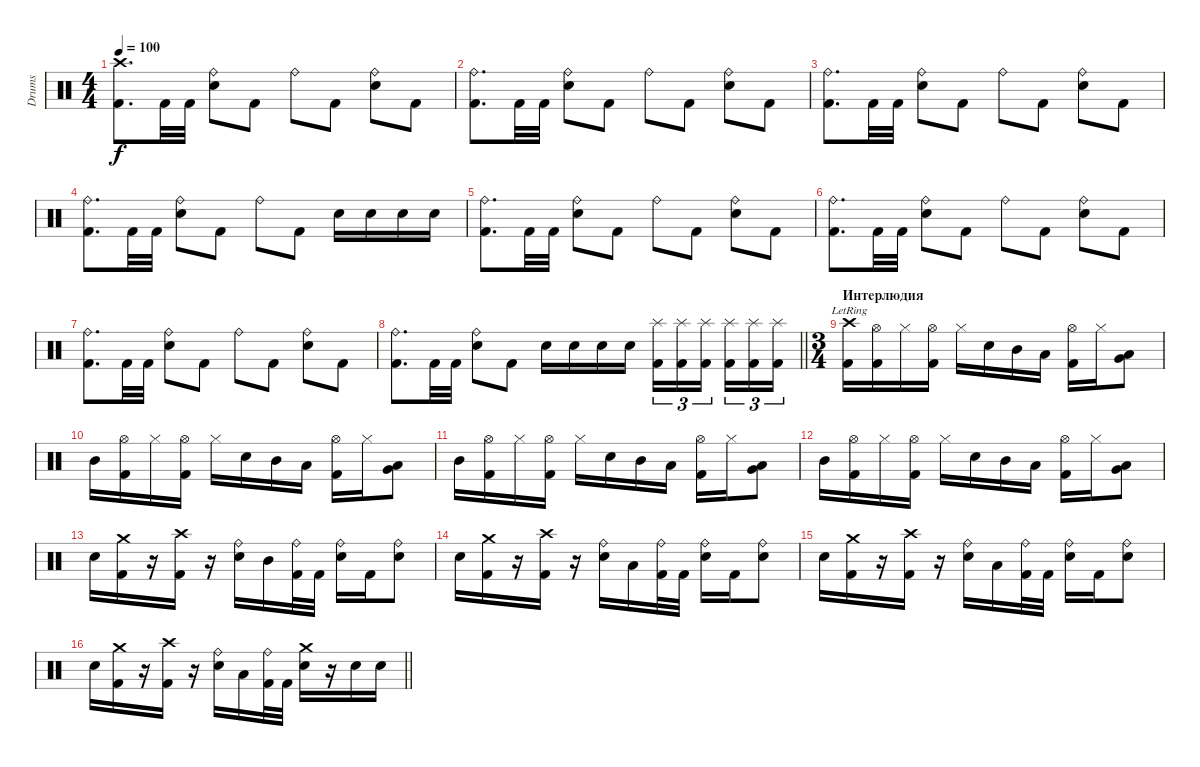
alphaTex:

\track ("Drums" "Drums") {instrument percussion}
\staff {score}
\articulation defaults
\ts (4 4)
\tempo 100
\clef neutral
\ks c
("Crash high (hit)" "Kick (hit) 2").8{d dy f} "Kick (hit) 2".32 "Kick (hit) 2".32 ("Ride (bell)" "Snare (hit) 2").8 "Kick (hit) 2".8 "Ride (bell)".8 "Kick (hit) 2".8 ("Ride (bell)" "Snare (hit) 2").8 "Kick (hit) 2".8 |
("Ride (bell)" "Kick (hit) 2").8{d} "Kick (hit) 2".32 "Kick (hit) 2".32 ("Ride (bell)" "Snare (hit) 2").8 "Kick (hit) 2".8 "Ride (bell)".8 "Kick (hit) 2".8 ("Ride (bell)" "Snare (hit) 2").8 "Kick (hit) 2".8 |
("Ride (bell)" "Kick (hit) 2").8{d} "Kick (hit) 2".32 "Kick (hit) 2".32 ("Ride (bell)" "Snare (hit) 2").8 "Kick (hit) 2".8 "Ride (bell)".8 "Kick (hit) 2".8 ("Ride (bell)" "Snare (hit) 2").8 "Kick (hit) 2".8 |
("Ride (bell)" "Kick (hit) 2").8{d} "Kick (hit) 2".32 "Kick (hit) 2".32 ("Ride (bell)" "Snare (hit) 2").8 "Kick (hit) 2".8 "Ride (bell)".8 "Kick (hit) 2".8 "Snare (hit) 2".16 "Snare (hit) 2".16 "Snare (hit) 2".16 "Snare (hit) 2".16 |
("Ride (bell)" "Kick (hit) 2").8{d} "Kick (hit) 2".32 "Kick (hit) 2".32 ("Ride (bell)" "Snare (hit) 2").8 "Kick (hit) 2".8 "Ride (bell)".8 "Kick (hit) 2".8 ("Ride (bell)" "Snare (hit) 2").8 "Kick (hit) 2".8 |
("Ride (bell)" "Kick (hit) 2").8{d} "Kick (hit) 2".32 "Kick (hit) 2".32 ("Ride (bell)" "Snare (hit) 2").8 "Kick (hit) 2".8 "Ride (bell)".8 "Kick (hit) 2".8 ("Ride (bell)" "Snare (hit) 2").8 "Kick (hit) 2".8 |
("Ride (bell)" "Kick (hit) 2").8{d} "Kick (hit) 2".32 "Kick (hit) 2".32 ("Ride (bell)" "Snare (hit) 2").8 "Kick (hit) 2".8 "Ride (bell)".8 "Kick (hit) 2".8 ("Ride (bell)" "Snare (hit) 2").8 "Kick (hit) 2".8 |
\barLineRight lightlight
("Ride (bell)" "Kick (hit) 2").8{d} "Kick (hit) 2".32 "Kick (hit) 2".32 ("Ride (bell)" "Snare (hit) 2").8 "Kick (hit) 2".8 "Electric Snare (hit)".16 "Electric Snare (hit)".16 "Electric Snare (hit)".16 "Electric Snare (hit)".16 ("Splash (hit)" "Kick (hit) 2").16{tu (3 2)} ("Splash (hit)" "Kick (hit) 2").16{tu (3 2)} ("Splash (hit)" "Kick (hit) 2").16{tu (3 2) beam splitsecondary} ("Splash (hit)" "Kick (hit) 2").16{tu (3 2)} ("Splash (hit)" "Kick (hit) 2").16{tu (3 2)} ("Splash (hit)" "Kick (hit) 2").16{tu (3 2)} |
\ts (3 4)
\section ("" "Интерлюдия")
("Crash high (hit)"{lr} "Kick (hit) 2").16 ("Hi-Hat (open)" "Kick (hit) 2").16 "Hi-Hat (closed)".16 ("Hi-Hat (open)" "Kick (hit) 2").16 "Hi-Hat (closed)".16 "Snare (hit) 2".16 "Mid Tom (hit)".16 "Low Tom (hit)".16 ("Hi-Hat (open)" "Kick (hit) 2").16 "Hi-Hat (closed)".16 ("Very Low Tom (hit)" "Low Tom (hit)").8 |
"Mid Tom (hit)".16 ("Hi-Hat (open)" "Kick (hit) 2").16 "Hi-Hat (closed)".16 ("Hi-Hat (open)" "Kick (hit) 2").16 "Hi-Hat (closed)".16 "Snare (hit) 2".16 "Mid Tom (hit)".16 "Low Tom (hit)".16 ("Hi-Hat (open)" "Kick (hit) 2").16 "Hi-Hat (closed)".16 ("Low Tom (hit)" "Very Low Tom (hit)").8 |
"Mid Tom (hit)".16 ("Hi-Hat (open)" "Kick (hit) 2").16 "Hi-Hat (closed)".16 ("Hi-Hat (open)" "Kick (hit) 2").16 "Hi-Hat (closed)".16 "Snare (hit) 2".16 "Mid Tom (hit)".16 "Low Tom (hit)".16 ("Hi-Hat (open)" "Kick (hit) 2").16 "Hi-Hat (closed)".16 ("Low Tom (hit)" "Very Low Tom (hit)").8 |
"Mid Tom (hit)".16 ("Hi-Hat (open)" "Kick (hit) 2").16 "Hi-Hat (closed)".16 ("Hi-Hat (open)" "Kick (hit) 2").16 "Hi-Hat (closed)".16 "Snare (hit) 2".16 "Mid Tom (hit)".16 "Low Tom (hit)".16 ("Hi-Hat (open)" "Kick (hit) 2").16 "Hi-Hat (closed)".16 ("Low Tom (hit)" "Very Low Tom (hit)").8 |
"Snare (hit) 2".16 ("Crash medium (hit)" "Kick (hit) 2").16 r.16 ("Crash high (hit)" "Kick (hit) 2").16 r.16 ("Ride (bell)" "Snare (hit) 2").16 "Mid Tom (hit)".16 ("Ride (bell)" "Kick (hit) 2").32 "Kick (hit) 2".32 ("Ride (bell)" "Snare (hit) 2").16 "Kick (hit) 2".16 ("Ride (bell)" "Snare (hit) 2").8 |
"Snare (hit) 2".16 ("Crash medium (hit)" "Kick (hit) 2").16 r.16 ("Crash high (hit)" "Kick (hit) 2").16 r.16 ("Ride (bell)" "Snare (hit) 2").16 "Low Tom (hit)".16 ("Ride (bell)" "Kick (hit) 2").32 "Kick (hit) 2".32 ("Ride (bell)" "Snare (hit) 2").16 "Kick (hit) 2".16 ("Ride (bell)" "Snare (hit) 2").8 |
"Snare (hit) 2".16 ("Crash medium (hit)" "Kick (hit) 2").16 r.16 ("Crash high (hit)" "Kick (hit) 2").16 r.16 ("Ride (bell)" "Snare (hit) 2").16 "Low Tom (hit)".16 ("Ride (bell)" "Kick (hit) 2").32 "Kick (hit) 2".32 ("Ride (bell)" "Snare (hit) 2").16 "Kick (hit) 2".16 ("Ride (bell)" "Snare (hit) 2").8 |
\barLineRight lightlight "Snare (hit) 2".16
("Crash medium (hit)" "Kick (hit) 2").16 r.16 ("Crash high (hit)" "Kick (hit) 2").16 r.16 ("Ride (bell)" "Snare (hit) 2").16 "Low Tom (hit)".16 ("Ride (bell)" "Kick (hit) 2").32 "Kick (hit) 2".32 ("Crash medium (hit)" "Snare (hit) 2").16 r.16 "Snare (hit) 2".16 "Snare (hit) 2".16
